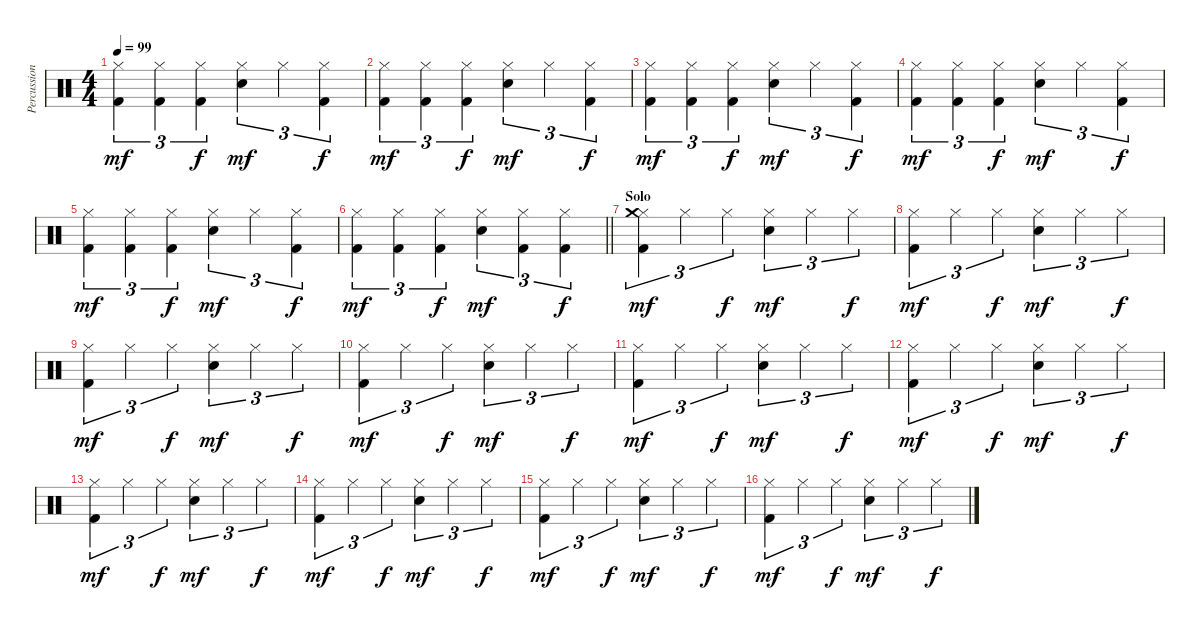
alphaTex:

\track ("Percussion" "Percussion") {instrument percussion}
\staff {score}
\articulation defaults
\ts (4 4)
\tempo 99
\clef neutral
\ks c
("Hi-Hat (closed)" "Kick (hit) 2").4{tu (3 2) dy mf} ("Hi-Hat (closed)" "Kick (hit) 2").4{tu (3 2)} ("Hi-Hat (closed)" "Kick (hit) 2").4{tu (3 2) dy f} ("Hi-Hat (closed)" "Electric Snare (hit)").4{tu (3 2) dy mf} "Hi-Hat (closed)".4{tu (3 2)} ("Hi-Hat (closed)" "Kick (hit) 2").4{tu (3 2) dy f} |
("Hi-Hat (closed)" "Kick (hit) 2").4{tu (3 2) dy mf} ("Hi-Hat (closed)" "Kick (hit) 2").4{tu (3 2)} ("Hi-Hat (closed)" "Kick (hit) 2").4{tu (3 2) dy f} ("Hi-Hat (closed)" "Electric Snare (hit)").4{tu (3 2) dy mf} "Hi-Hat (closed)".4{tu (3 2)} ("Hi-Hat (closed)" "Kick (hit) 2").4{tu (3 2) dy f} |
("Hi-Hat (closed)" "Kick (hit) 2").4{tu (3 2) dy mf} ("Hi-Hat (closed)" "Kick (hit) 2").4{tu (3 2)} ("Hi-Hat (closed)" "Kick (hit) 2").4{tu (3 2) dy f} ("Hi-Hat (closed)" "Electric Snare (hit)").4{tu (3 2) dy mf} "Hi-Hat (closed)".4{tu (3 2)} ("Hi-Hat (closed)" "Kick (hit) 2").4{tu (3 2) dy f} |
("Hi-Hat (closed)" "Kick (hit) 2").4{tu (3 2) dy mf} ("Hi-Hat (closed)" "Kick (hit) 2").4{tu (3 2)} ("Hi-Hat (closed)" "Kick (hit) 2").4{tu (3 2) dy f} ("Hi-Hat (closed)" "Electric Snare (hit)").4{tu (3 2) dy mf} "Hi-Hat (closed)".4{tu (3 2)} ("Hi-Hat (closed)" "Kick (hit) 2").4{tu (3 2) dy f} |
("Hi-Hat (closed)" "Kick (hit) 2").4{tu (3 2) dy mf} ("Hi-Hat (closed)" "Kick (hit) 2").4{tu (3 2)} ("Hi-Hat (closed)" "Kick (hit) 2").4{tu (3 2) dy f} ("Hi-Hat (closed)" "Electric Snare (hit)").4{tu (3 2) dy mf} "Hi-Hat (closed)".4{tu (3 2)} ("Hi-Hat (closed)" "Kick (hit) 2").4{tu (3 2) dy f} |
\barLineRight lightlight
("Hi-Hat (closed)" "Kick (hit) 2").4{tu (3 2) dy mf} ("Hi-Hat (closed)" "Kick (hit) 2").4{tu (3 2)} ("Hi-Hat (closed)" "Kick (hit) 2").4{tu (3 2) dy f} ("Hi-Hat (closed)" "Electric Snare (hit)").4{tu (3 2) dy mf} ("Hi-Hat (closed)" "Kick (hit) 2").4{tu (3 2)} ("Hi-Hat (closed)" "Kick (hit) 2").4{tu (3 2) dy f} |
\section ("" "Solo")
("Hi-Hat (closed)" "Crash medium (hit)" "Kick (hit) 2").4{tu (3 2) dy mf} "Hi-Hat (closed)".4{tu (3 2)} "Hi-Hat (closed)".4{tu (3 2) dy f} ("Hi-Hat (closed)" "Electric Snare (hit)").4{tu (3 2) dy mf} "Hi-Hat (closed)".4{tu (3 2)} "Hi-Hat (closed)".4{tu (3 2) dy f} |
("Hi-Hat (closed)" "Kick (hit) 2").4{tu (3 2) dy mf} "Hi-Hat (closed)".4{tu (3 2)} "Hi-Hat (closed)".4{tu (3 2) dy f} ("Hi-Hat (closed)" "Electric Snare (hit)").4{tu (3 2) dy mf} "Hi-Hat (closed)".4{tu (3 2)} "Hi-Hat (closed)".4{tu (3 2) dy f} |
("Hi-Hat (closed)" "Kick (hit) 2").4{tu (3 2) dy mf} "Hi-Hat (closed)".4{tu (3 2)} "Hi-Hat (closed)".4{tu (3 2) dy f} ("Hi-Hat (closed)" "Electric Snare (hit)").4{tu (3 2) dy mf} "Hi-Hat (closed)".4{tu (3 2)} "Hi-Hat (closed)".4{tu (3 2) dy f} |
("Hi-Hat (closed)" "Kick (hit) 2").4{tu (3 2) dy mf} "Hi-Hat (closed)".4{tu (3 2)} "Hi-Hat (closed)".4{tu (3 2) dy f} ("Hi-Hat (closed)" "Electric Snare (hit)").4{tu (3 2) dy mf} "Hi-Hat (closed)".4{tu (3 2)} "Hi-Hat (closed)".4{tu (3 2) dy f} |
("Hi-Hat (closed)" "Kick (hit) 2").4{tu (3 2) dy mf} "Hi-Hat (closed)".4{tu (3 2)} "Hi-Hat (closed)".4{tu (3 2) dy f} ("Hi-Hat (closed)" "Electric Snare (hit)").4{tu (3 2) dy mf} "Hi-Hat (closed)".4{tu (3 2)} "Hi-Hat (closed)".4{tu (3 2) dy f} |
("Hi-Hat (closed)" "Kick (hit) 2").4{tu (3 2) dy mf} "Hi-Hat (closed)".4{tu (3 2)} "Hi-Hat (closed)".4{tu (3 2) dy f} ("Hi-Hat (closed)" "Electric Snare (hit)").4{tu (3 2) dy mf} "Hi-Hat (closed)".4{tu (3 2)} "Hi-Hat (closed)".4{tu (3 2) dy f} |
("Hi-Hat (closed)" "Kick (hit) 2").4{tu (3 2) dy mf} "Hi-Hat (closed)".4{tu (3 2)} "Hi-Hat (closed)".4{tu (3 2) dy f} ("Hi-Hat (closed)" "Electric Snare (hit)").4{tu (3 2) dy mf} "Hi-Hat (closed)".4{tu (3 2)} "Hi-Hat (closed)".4{tu (3 2) dy f} |
("Hi-Hat (closed)" "Kick (hit) 2").4{tu (3 2) dy mf} "Hi-Hat (closed)".4{tu (3 2)} "Hi-Hat (closed)".4{tu (3 2) dy f} ("Hi-Hat (closed)" "Electric Snare (hit)").4{tu (3 2) dy mf} "Hi-Hat (closed)".4{tu (3 2)} "Hi-Hat (closed)".4{tu (3 2) dy f} |
("Hi-Hat (closed)" "Kick (hit) 2").4{tu (3 2) dy mf} "Hi-Hat (closed)".4{tu (3 2)} "Hi-Hat (closed)".4{tu (3 2) dy f} ("Hi-Hat (closed)" "Electric Snare (hit)").4{tu (3 2) dy mf} "Hi-Hat (closed)".4{tu (3 2)} "Hi-Hat (closed)".4{tu (3 2) dy f} |
("Hi-Hat (closed)" "Kick (hit) 2").4{tu (3 2) dy mf} "Hi-Hat (closed)".4{tu (3 2)} "Hi-Hat (closed)".4{tu (3 2) dy f} ("Hi-Hat (closed)" "Electric Snare (hit)").4{tu (3 2) dy mf} "Hi-Hat (closed)".4{tu (3 2)} "Hi-Hat (closed)".4{tu (3 2) dy f}
